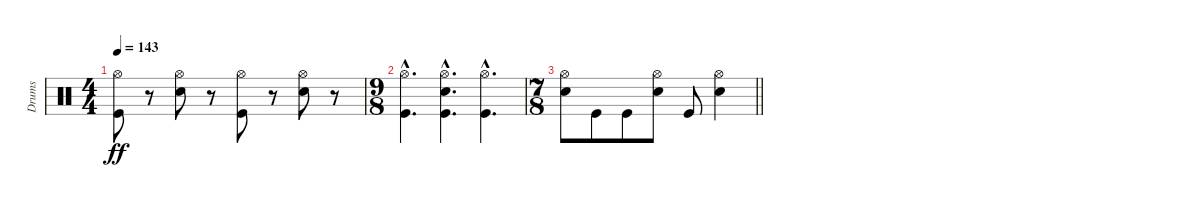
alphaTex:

\track ("Drums" "Drums") {instrument percussion}
\staff {score}
\articulation defaults
\ts (4 4)
\tempo 143
\clef neutral
\ks c
("Hi-Hat (open)" "Kick (hit)").8{dy ff} r.8 ("Hi-Hat (open)" "Electric Snare (hit)").8 r.8 ("Hi-Hat (open)" "Kick (hit)").8 r.8 ("Hi-Hat (open)" "Electric Snare (hit)").8 r.8 |
\ts (9 8)
("Hi-Hat (open)"{hac} "Kick (hit)"{hac}).4{d} ("Hi-Hat (open)"{hac} "Electric Snare (hit)"{hac} "Kick (hit)"{hac}).4{d} ("Hi-Hat (open)"{hac} "Kick (hit)"{hac}).4{d} |
\ts (7 8)
\barLineRight lightlight
("Hi-Hat (open)" "Electric Snare (hit)").8 "Kick (hit)".8 "Kick (hit)".8 ("Hi-Hat (open)" "Electric Snare (hit)").8 "Kick (hit)".8 ("Hi-Hat (open)" "Electric Snare (hit)").4
